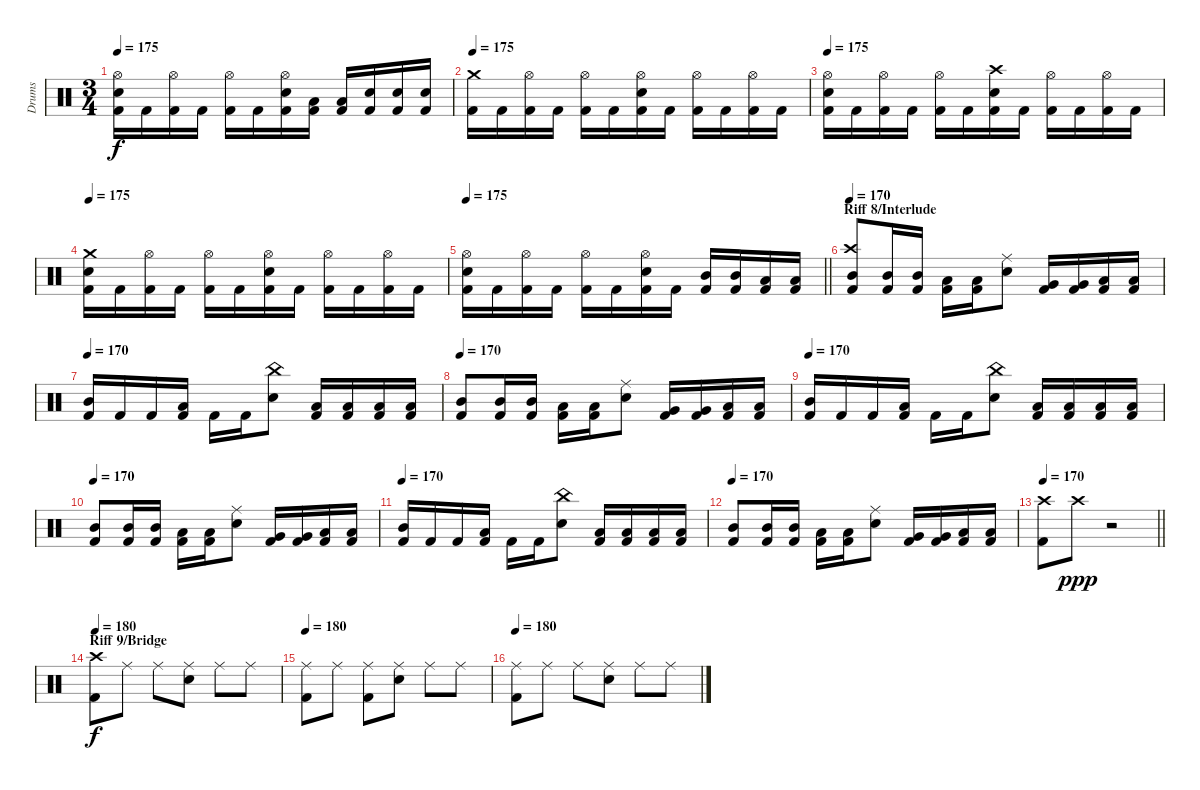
\track ("Drums" "Drums") {instrument percussion}
\staff {score}
\articulation defaults
\ts (3 4)
\tempo 175
\clef neutral
\ks c
("Hi-Hat (open)" "Electric Snare (hit)" "Kick (hit) 2").16{dy f} "Kick (hit) 2".16 ("Hi-Hat (open)" "Kick (hit) 2").16 "Kick (hit) 2".16 ("Hi-Hat (open)" "Kick (hit) 2").16 "Kick (hit) 2".16 ("Hi-Hat (open)" "Electric Snare (hit)" "Kick (hit) 2").16 ("Low Tom (hit)" "Kick (hit) 2").16 ("Low Tom (hit)" "Kick (hit) 2").16 ("Electric Snare (hit)" "Kick (hit) 2").16 ("Electric Snare (hit)" "Kick (hit) 2").16 ("Electric Snare (hit)" "Kick (hit) 2").16 |
\tempo 175
("Crash medium (hit)" "Kick (hit) 2").16 "Kick (hit) 2".16 ("Hi-Hat (open)" "Kick (hit) 2").16 "Kick (hit) 2".16 ("Hi-Hat (open)" "Kick (hit) 2").16 "Kick (hit) 2".16 ("Hi-Hat (open)" "Electric Snare (hit)" "Kick (hit) 2").16 "Kick (hit) 2".16 ("Hi-Hat (open)" "Kick (hit) 2").16 "Kick (hit) 2".16 ("Hi-Hat (open)" "Kick (hit) 2").16 "Kick (hit) 2".16 |
\tempo 175
("Hi-Hat (open)" "Electric Snare (hit)" "Kick (hit) 2").16 "Kick (hit) 2".16 ("Hi-Hat (open)" "Kick (hit) 2").16 "Kick (hit) 2".16 ("Hi-Hat (open)" "Kick (hit) 2").16 "Kick (hit) 2".16 ("Crash high (hit)" "Electric Snare (hit)" "Kick (hit) 2").16 "Kick (hit) 2".16 ("Hi-Hat (open)" "Kick (hit) 2").16 "Kick (hit) 2".16 ("Hi-Hat (open)" "Kick (hit) 2").16 "Kick (hit) 2".16 |
\tempo 175
("Crash medium (hit)" "Electric Snare (hit)" "Kick (hit) 2").16 "Kick (hit) 2".16 ("Hi-Hat (open)" "Kick (hit) 2").16 "Kick (hit) 2".16 ("Hi-Hat (open)" "Kick (hit) 2").16 "Kick (hit) 2".16 ("Hi-Hat (open)" "Electric Snare (hit)" "Kick (hit) 2").16 "Kick (hit) 2".16 ("Hi-Hat (open)" "Kick (hit) 2").16 "Kick (hit) 2".16 ("Hi-Hat (open)" "Kick (hit) 2").16 "Kick (hit) 2".16 |
\tempo 175
\barLineRight lightlight
("Hi-Hat (open)" "Electric Snare (hit)" "Kick (hit) 2").16 "Kick (hit) 2".16 ("Hi-Hat (open)" "Kick (hit) 2").16 "Kick (hit) 2".16 ("Hi-Hat (open)" "Kick (hit) 2").16 "Kick (hit) 2".16 ("Hi-Hat (open)" "Electric Snare (hit)" "Kick (hit) 2").16 "Kick (hit) 2".16 ("Mid Tom (hit)" "Kick (hit) 2").16 ("Mid Tom (hit)" "Kick (hit) 2").16 ("Low Tom (hit)" "Kick (hit) 2").16 ("Low Tom (hit)" "Kick (hit) 2").16 |
\section ("" "Riff 8/Interlude")
\tempo 170
("Crash high (hit)" "Mid Tom (hit)" "Kick (hit) 2").8 ("Mid Tom (hit)" "Kick (hit) 2").16 ("Mid Tom (hit)" "Kick (hit) 2").16 ("Low Tom (hit)" "Kick (hit) 2").16 ("Low Tom (hit)" "Kick (hit) 2").16 ("Ride (middle)" "Electric Snare (hit)").8 ("Very Low Tom (hit)" "Kick (hit) 2").16 ("Very Low Tom (hit)" "Kick (hit) 2").16 ("Low Tom (hit)" "Kick (hit) 2").16 ("Low Tom (hit)" "Kick (hit) 2").16 |
\tempo 170
("Mid Tom (hit)" "Kick (hit) 2").16 "Kick (hit) 2".16 "Kick (hit) 2".16 ("Low Tom (hit)" "Kick (hit) 2").16 "Kick (hit) 2".16 "Kick (hit) 2".16 ("China (hit)" "Electric Snare (hit)").8 ("Low Tom (hit)" "Kick (hit) 2").16 ("Low Tom (hit)" "Kick (hit) 2").16 ("Low Tom (hit)" "Kick (hit) 2").16 ("Low Tom (hit)" "Kick (hit) 2").16 |
\tempo 170
("Mid Tom (hit)" "Kick (hit) 2").8 ("Mid Tom (hit)" "Kick (hit) 2").16 ("Mid Tom (hit)" "Kick (hit) 2").16 ("Low Tom (hit)" "Kick (hit) 2").16 ("Low Tom (hit)" "Kick (hit) 2").16 ("Ride (middle)" "Electric Snare (hit)").8 ("Very Low Tom (hit)" "Kick (hit) 2").16 ("Very Low Tom (hit)" "Kick (hit) 2").16 ("Low Tom (hit)" "Kick (hit) 2").16 ("Low Tom (hit)" "Kick (hit) 2").16 |
\tempo 170
("Mid Tom (hit)" "Kick (hit) 2").16 "Kick (hit) 2".16 "Kick (hit) 2".16 ("Low Tom (hit)" "Kick (hit) 2").16 "Kick (hit) 2".16 "Kick (hit) 2".16 ("China (hit)" "Electric Snare (hit)").8 ("Low Tom (hit)" "Kick (hit) 2").16 ("Low Tom (hit)" "Kick (hit) 2").16 ("Low Tom (hit)" "Kick (hit) 2").16 ("Low Tom (hit)" "Kick (hit) 2").16 |
\tempo 170
("Mid Tom (hit)" "Kick (hit) 2").8 ("Mid Tom (hit)" "Kick (hit) 2").16 ("Mid Tom (hit)" "Kick (hit) 2").16 ("Low Tom (hit)" "Kick (hit) 2").16 ("Low Tom (hit)" "Kick (hit) 2").16 ("Ride (middle)" "Electric Snare (hit)").8 ("Very Low Tom (hit)" "Kick (hit) 2").16 ("Very Low Tom (hit)" "Kick (hit) 2").16 ("Low Tom (hit)" "Kick (hit) 2").16 ("Low Tom (hit)" "Kick (hit) 2").16 |
\tempo 170
("Mid Tom (hit)" "Kick (hit) 2").16 "Kick (hit) 2".16 "Kick (hit) 2".16 ("Low Tom (hit)" "Kick (hit) 2").16 "Kick (hit) 2".16 "Kick (hit) 2".16 ("China (hit)" "Electric Snare (hit)").8 ("Low Tom (hit)" "Kick (hit) 2").16 ("Low Tom (hit)" "Kick (hit) 2").16 ("Low Tom (hit)" "Kick (hit) 2").16 ("Low Tom (hit)" "Kick (hit) 2").16 |
\tempo 170
("Mid Tom (hit)" "Kick (hit) 2").8 ("Mid Tom (hit)" "Kick (hit) 2").16 ("Mid Tom (hit)" "Kick (hit) 2").16 ("Low Tom (hit)" "Kick (hit) 2").16 ("Low Tom (hit)" "Kick (hit) 2").16 ("Ride (middle)" "Electric Snare (hit)").8 ("Very Low Tom (hit)" "Kick (hit) 2").16 ("Very Low Tom (hit)" "Kick (hit) 2").16 ("Low Tom (hit)" "Kick (hit) 2").16 ("Low Tom (hit)" "Kick (hit) 2").16 |
\tempo 170
\barLineRight lightlight
("Crash high (hit)" "Kick (hit) 2").8 "Crash high (hit)".8{dy ppp} r.2 |
\section ("" "Riff 9/Bridge")
\tempo 180
("Crash high (hit)" "Kick (hit) 2").8{dy f} "Ride (middle)".8 "Ride (middle)".8 ("Ride (middle)" "Electric Snare (hit)").8 "Ride (middle)".8 "Ride (middle)".8 |
\tempo 180
("Ride (middle)" "Kick (hit) 2").8 "Ride (middle)".8 ("Ride (middle)" "Kick (hit) 2").8 ("Ride (middle)" "Electric Snare (hit)").8 "Ride (middle)".8 "Ride (middle)".8 |
\tempo 180
("Ride (middle)" "Kick (hit) 2").8 "Ride (middle)".8 "Ride (middle)".8 ("Ride (middle)" "Electric Snare (hit)").8 "Ride (middle)".8 "Ride (middle)".8
